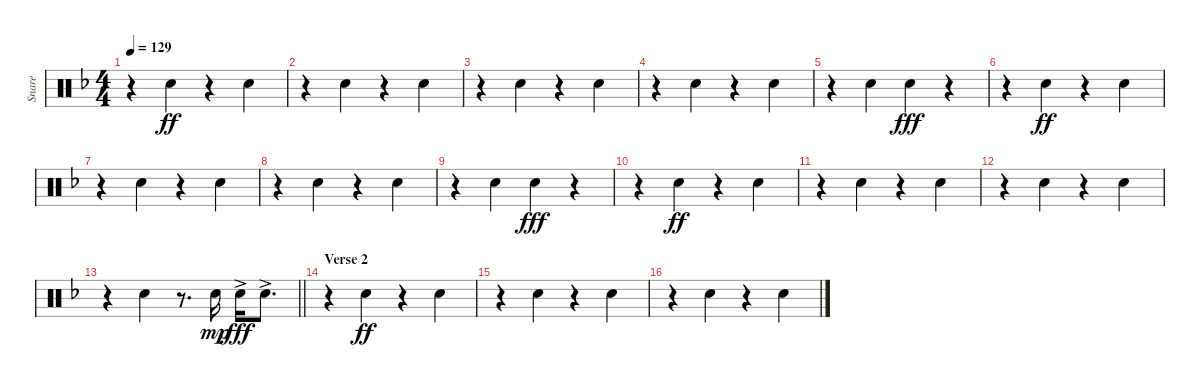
\track ("Snare" "Snare") {instrument percussion}
\staff {score}
\articulation defaults
\ts (4 4)
\tempo 129
\clef neutral
\ks dminor
r.4{dy ff} "Electric Snare (hit)".4 r.4 "Electric Snare (hit)".4 |
r.4 "Electric Snare (hit)".4 r.4 "Electric Snare (hit)".4 |
r.4 "Electric Snare (hit)".4 r.4 "Electric Snare (hit)".4 |
r.4 "Electric Snare (hit)".4 r.4 "Electric Snare (hit)".4 |
r.4 "Electric Snare (hit)".4 "Electric Snare (hit)".4{dy fff} r.4 |
r.4 "Electric Snare (hit)".4{dy ff} r.4 "Electric Snare (hit)".4 |
r.4 "Electric Snare (hit)".4 r.4 "Electric Snare (hit)".4 |
r.4 "Electric Snare (hit)".4 r.4 "Electric Snare (hit)".4 |
r.4 "Electric Snare (hit)".4 "Electric Snare (hit)".4{dy fff} r.4 |
r.4 "Electric Snare (hit)".4{dy ff} r.4 "Electric Snare (hit)".4 |
r.4 "Electric Snare (hit)".4 r.4 "Electric Snare (hit)".4 |
r.4 "Electric Snare (hit)".4 r.4 "Electric Snare (hit)".4 |
\barLineRight lightlight
r.4 "Electric Snare (hit)".4 r.8{d} "Electric Snare (hit)".16{dy mp} "Electric Snare (hit)"{ac}.16{dy fff} "Electric Snare (hit)"{ac}.8{d} |
\section ("" "Verse 2")
r.4 "Electric Snare (hit)".4{dy ff} r.4 "Electric Snare (hit)".4 |
r.4 "Electric Snare (hit)".4 r.4 "Electric Snare (hit)".4 |
r.4 "Electric Snare (hit)".4 r.4 "Electric Snare (hit)".4
